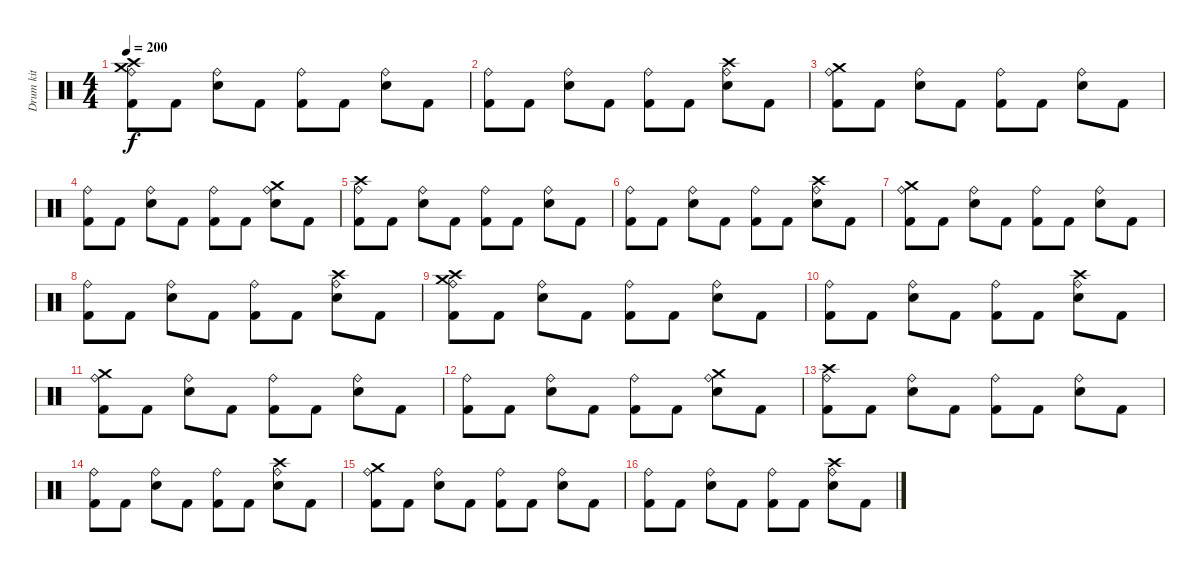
\track ("Drum kit" "Drum kit") {instrument percussion}
\staff {score}
\articulation defaults
\ts (4 4)
\tempo 200
\clef neutral
\ks c
("Crash medium (hit)" "Crash high (hit)" "Kick (hit) 2" "Ride (bell)").8{dy f} "Kick (hit) 2".8 ("Electric Snare (hit)" "Ride (bell)").8 "Kick (hit) 2".8 ("Kick (hit) 2" "Ride (bell)").8 "Kick (hit) 2".8 ("Electric Snare (hit)" "Ride (bell)").8 "Kick (hit) 2".8 |
("Kick (hit) 2" "Ride (bell)").8 "Kick (hit) 2".8 ("Electric Snare (hit)" "Ride (bell)").8 "Kick (hit) 2".8 ("Kick (hit) 2" "Ride (bell)").8 "Kick (hit) 2".8 ("Crash high (hit)" "Electric Snare (hit)" "Ride (bell)").8 "Kick (hit) 2".8 |
("Crash medium (hit)" "Kick (hit) 2" "Ride (bell)").8 "Kick (hit) 2".8 ("Electric Snare (hit)" "Ride (bell)").8 "Kick (hit) 2".8 ("Kick (hit) 2" "Ride (bell)").8 "Kick (hit) 2".8 ("Electric Snare (hit)" "Ride (bell)").8 "Kick (hit) 2".8 |
("Kick (hit) 2" "Ride (bell)").8 "Kick (hit) 2".8 ("Electric Snare (hit)" "Ride (bell)").8 "Kick (hit) 2".8 ("Kick (hit) 2" "Ride (bell)").8 "Kick (hit) 2".8 ("Crash medium (hit)" "Electric Snare (hit)" "Ride (bell)").8 "Kick (hit) 2".8 |
("Crash high (hit)" "Kick (hit) 2" "Ride (bell)").8 "Kick (hit) 2".8 ("Electric Snare (hit)" "Ride (bell)").8 "Kick (hit) 2".8 ("Kick (hit) 2" "Ride (bell)").8 "Kick (hit) 2".8 ("Electric Snare (hit)" "Ride (bell)").8 "Kick (hit) 2".8 |
("Kick (hit) 2" "Ride (bell)").8 "Kick (hit) 2".8 ("Electric Snare (hit)" "Ride (bell)").8 "Kick (hit) 2".8 ("Kick (hit) 2" "Ride (bell)").8 "Kick (hit) 2".8 ("Crash high (hit)" "Electric Snare (hit)" "Ride (bell)").8 "Kick (hit) 2".8 |
("Crash medium (hit)" "Kick (hit) 2" "Ride (bell)").8 "Kick (hit) 2".8 ("Electric Snare (hit)" "Ride (bell)").8 "Kick (hit) 2".8 ("Kick (hit) 2" "Ride (bell)").8 "Kick (hit) 2".8 ("Electric Snare (hit)" "Ride (bell)").8 "Kick (hit) 2".8 |
("Kick (hit) 2" "Ride (bell)").8 "Kick (hit) 2".8 ("Electric Snare (hit)" "Ride (bell)").8 "Kick (hit) 2".8 ("Kick (hit) 2" "Ride (bell)").8 "Kick (hit) 2".8 ("Crash high (hit)" "Electric Snare (hit)" "Ride (bell)").8 "Kick (hit) 2".8 |
("Crash medium (hit)" "Crash high (hit)" "Kick (hit) 2" "Ride (bell)").8 "Kick (hit) 2".8 ("Electric Snare (hit)" "Ride (bell)").8 "Kick (hit) 2".8 ("Kick (hit) 2" "Ride (bell)").8 "Kick (hit) 2".8 ("Electric Snare (hit)" "Ride (bell)").8 "Kick (hit) 2".8 |
("Kick (hit) 2" "Ride (bell)").8 "Kick (hit) 2".8 ("Electric Snare (hit)" "Ride (bell)").8 "Kick (hit) 2".8 ("Kick (hit) 2" "Ride (bell)").8 "Kick (hit) 2".8 ("Crash high (hit)" "Electric Snare (hit)" "Ride (bell)").8 "Kick (hit) 2".8 |
("Crash medium (hit)" "Kick (hit) 2" "Ride (bell)").8 "Kick (hit) 2".8 ("Electric Snare (hit)" "Ride (bell)").8 "Kick (hit) 2".8 ("Kick (hit) 2" "Ride (bell)").8 "Kick (hit) 2".8 ("Electric Snare (hit)" "Ride (bell)").8 "Kick (hit) 2".8 |
("Kick (hit) 2" "Ride (bell)").8 "Kick (hit) 2".8 ("Electric Snare (hit)" "Ride (bell)").8 "Kick (hit) 2".8 ("Kick (hit) 2" "Ride (bell)").8 "Kick (hit) 2".8 ("Crash medium (hit)" "Electric Snare (hit)" "Ride (bell)").8 "Kick (hit) 2".8 |
("Crash high (hit)" "Kick (hit) 2" "Ride (bell)").8 "Kick (hit) 2".8 ("Electric Snare (hit)" "Ride (bell)").8 "Kick (hit) 2".8 ("Kick (hit) 2" "Ride (bell)").8 "Kick (hit) 2".8 ("Electric Snare (hit)" "Ride (bell)").8 "Kick (hit) 2".8 |
("Kick (hit) 2" "Ride (bell)").8 "Kick (hit) 2".8 ("Electric Snare (hit)" "Ride (bell)").8 "Kick (hit) 2".8 ("Kick (hit) 2" "Ride (bell)").8 "Kick (hit) 2".8 ("Crash high (hit)" "Electric Snare (hit)" "Ride (bell)").8 "Kick (hit) 2".8 |
("Crash medium (hit)" "Kick (hit) 2" "Ride (bell)").8 "Kick (hit) 2".8 ("Electric Snare (hit)" "Ride (bell)").8 "Kick (hit) 2".8 ("Kick (hit) 2" "Ride (bell)").8 "Kick (hit) 2".8 ("Electric Snare (hit)" "Ride (bell)").8 "Kick (hit) 2".8 |
("Kick (hit) 2" "Ride (bell)").8 "Kick (hit) 2".8 ("Electric Snare (hit)" "Ride (bell)").8 "Kick (hit) 2".8 ("Kick (hit) 2" "Ride (bell)").8 "Kick (hit) 2".8 ("Crash high (hit)" "Electric Snare (hit)" "Ride (bell)").8 "Kick (hit) 2".8
